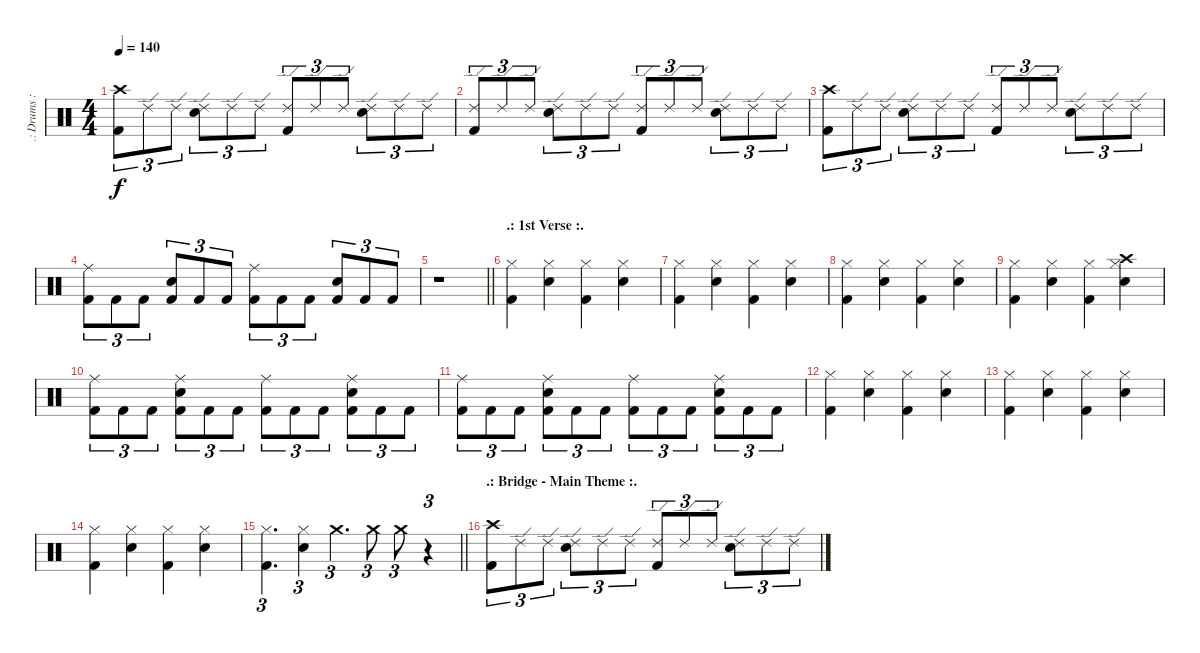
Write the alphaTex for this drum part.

\track (".: Drums :." ".: Drums :") {instrument percussion}
\staff {score}
\articulation defaults
\ts (4 4)
\tempo 140
\clef neutral
\ks c
("Crash high (hit)" "Kick (hit) 2").8{tu (3 2) dy f} "Ride (edge) 2".8{tu (3 2)} "Ride (edge) 2".8{tu (3 2)} ("Ride (edge) 2" "Snare (hit) 2").8{tu (3 2)} "Ride (edge) 2".8{tu (3 2)} "Ride (edge) 2".8{tu (3 2)} ("Ride (edge) 2" "Kick (hit) 2").8{tu (3 2)} "Ride (edge) 2".8{tu (3 2)} "Ride (edge) 2".8{tu (3 2)} ("Ride (edge) 2" "Snare (hit) 2").8{tu (3 2)} "Ride (edge) 2".8{tu (3 2)} "Ride (edge) 2".8{tu (3 2)} |
("Ride (edge) 2" "Kick (hit) 2").8{tu (3 2)} "Ride (edge) 2".8{tu (3 2)} "Ride (edge) 2".8{tu (3 2)} ("Ride (edge) 2" "Snare (hit) 2").8{tu (3 2)} "Ride (edge) 2".8{tu (3 2)} "Ride (edge) 2".8{tu (3 2)} ("Ride (edge) 2" "Kick (hit) 2").8{tu (3 2)} "Ride (edge) 2".8{tu (3 2)} "Ride (edge) 2".8{tu (3 2)} ("Ride (edge) 2" "Snare (hit) 2").8{tu (3 2)} "Ride (edge) 2".8{tu (3 2)} "Ride (edge) 2".8{tu (3 2)} |
("Crash high (hit)" "Kick (hit) 2").8{tu (3 2)} "Ride (edge) 2".8{tu (3 2)} "Ride (edge) 2".8{tu (3 2)} ("Ride (edge) 2" "Snare (hit) 2").8{tu (3 2)} "Ride (edge) 2".8{tu (3 2)} "Ride (edge) 2".8{tu (3 2)} ("Ride (edge) 2" "Kick (hit) 2").8{tu (3 2)} "Ride (edge) 2".8{tu (3 2)} "Ride (edge) 2".8{tu (3 2)} ("Ride (edge) 2" "Snare (hit) 2").8{tu (3 2)} "Ride (edge) 2".8{tu (3 2)} "Ride (edge) 2".8{tu (3 2)} |
("Kick (hit) 2" "Ride (middle)").8{tu (3 2)} "Kick (hit) 2".8{tu (3 2)} "Kick (hit) 2".8{tu (3 2)} ("Kick (hit) 2" "Snare (hit) 2").8{tu (3 2)} "Kick (hit) 2".8{tu (3 2)} "Kick (hit) 2".8{tu (3 2)} ("Kick (hit) 2" "Ride (middle)").8{tu (3 2)} "Kick (hit) 2".8{tu (3 2)} "Kick (hit) 2".8{tu (3 2)} ("Kick (hit) 2" "Snare (hit) 2").8{tu (3 2)} "Kick (hit) 2".8{tu (3 2)} "Kick (hit) 2".8{tu (3 2)} |
\barLineRight lightlight
r.1 |
\section ("" ".: 1st Verse :.")
("Hi-Hat (closed)" "Kick (hit) 2").4 ("Hi-Hat (closed)" "Snare (hit) 2").4 ("Hi-Hat (closed)" "Kick (hit) 2").4 ("Hi-Hat (closed)" "Snare (hit) 2").4 |
("Hi-Hat (closed)" "Kick (hit) 2").4 ("Hi-Hat (closed)" "Snare (hit) 2").4 ("Hi-Hat (closed)" "Kick (hit) 2").4 ("Hi-Hat (closed)" "Snare (hit) 2").4 |
("Hi-Hat (closed)" "Kick (hit) 2").4 ("Hi-Hat (closed)" "Snare (hit) 2").4 ("Hi-Hat (closed)" "Kick (hit) 2").4 ("Hi-Hat (closed)" "Snare (hit) 2").4 |
("Hi-Hat (closed)" "Kick (hit) 2").4 ("Hi-Hat (closed)" "Snare (hit) 2").4 ("Hi-Hat (closed)" "Kick (hit) 2").4 ("Hi-Hat (closed)" "Snare (hit) 2" "Crash high (hit)").4 |
("Kick (hit) 2" "Ride (middle)").8{tu (3 2)} "Kick (hit) 2".8{tu (3 2)} "Kick (hit) 2".8{tu (3 2)} ("Kick (hit) 2" "Ride (middle)" "Snare (hit) 2").8{tu (3 2)} "Kick (hit) 2".8{tu (3 2)} "Kick (hit) 2".8{tu (3 2)} ("Kick (hit) 2" "Ride (middle)").8{tu (3 2)} "Kick (hit) 2".8{tu (3 2)} "Kick (hit) 2".8{tu (3 2)} ("Kick (hit) 2" "Ride (middle)" "Snare (hit) 2").8{tu (3 2)} "Kick (hit) 2".8{tu (3 2)} "Kick (hit) 2".8{tu (3 2)} |
("Kick (hit) 2" "Ride (middle)").8{tu (3 2)} "Kick (hit) 2".8{tu (3 2)} "Kick (hit) 2".8{tu (3 2)} ("Kick (hit) 2" "Ride (middle)" "Snare (hit) 2").8{tu (3 2)} "Kick (hit) 2".8{tu (3 2)} "Kick (hit) 2".8{tu (3 2)} ("Kick (hit) 2" "Ride (middle)").8{tu (3 2)} "Kick (hit) 2".8{tu (3 2)} "Kick (hit) 2".8{tu (3 2)} ("Kick (hit) 2" "Ride (middle)" "Snare (hit) 2").8{tu (3 2)} "Kick (hit) 2".8{tu (3 2)} "Kick (hit) 2".8{tu (3 2)} |
("Hi-Hat (closed)" "Kick (hit) 2").4 ("Hi-Hat (closed)" "Snare (hit) 2").4 ("Hi-Hat (closed)" "Kick (hit) 2").4 ("Hi-Hat (closed)" "Snare (hit) 2").4 |
("Hi-Hat (closed)" "Kick (hit) 2").4 ("Hi-Hat (closed)" "Snare (hit) 2").4 ("Hi-Hat (closed)" "Kick (hit) 2").4 ("Hi-Hat (closed)" "Snare (hit) 2").4 |
("Hi-Hat (closed)" "Kick (hit) 2").4 ("Hi-Hat (closed)" "Snare (hit) 2").4 ("Hi-Hat (closed)" "Kick (hit) 2").4 ("Hi-Hat (closed)" "Snare (hit) 2").4 |
\barLineRight lightlight
("Hi-Hat (closed)" "Kick (hit) 2").4{d tu (3 2)} ("Hi-Hat (closed)" "Snare (hit) 2").4{tu (3 2)} "Crash medium (hit)".4{d tu (3 2)} "Crash medium (hit)".8{tu (3 2)} "Crash medium (hit)".8{tu (3 2)} r.4{tu (3 2)} |
\section ("" ".: Bridge - Main Theme :.")
("Crash high (hit)" "Kick (hit) 2").8{tu (3 2)} "Ride (edge) 2".8{tu (3 2)} "Ride (edge) 2".8{tu (3 2)} ("Ride (edge) 2" "Snare (hit) 2").8{tu (3 2)} "Ride (edge) 2".8{tu (3 2)} "Ride (edge) 2".8{tu (3 2)} ("Ride (edge) 2" "Kick (hit) 2").8{tu (3 2)} "Ride (edge) 2".8{tu (3 2)} "Ride (edge) 2".8{tu (3 2)} ("Ride (edge) 2" "Snare (hit) 2").8{tu (3 2)} "Ride (edge) 2".8{tu (3 2)} "Ride (edge) 2".8{tu (3 2)}
